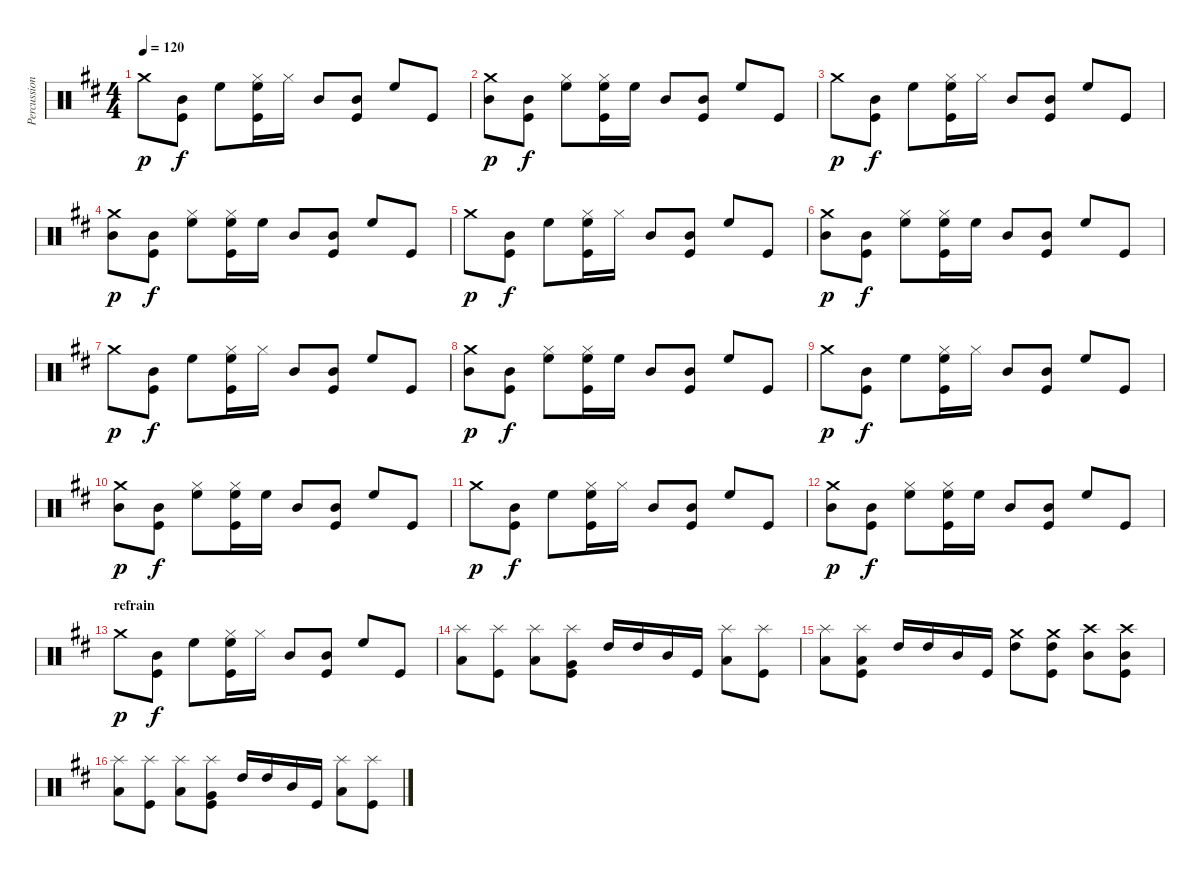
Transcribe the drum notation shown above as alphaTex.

\track ("Percussions" "Percussion") {instrument percussion}
\staff {score}
\articulation defaults
\ts (4 4)
\tempo 120
\clef neutral
\ks d "Crash medium (hit)".8{dy p}
("Mid Tom (hit)" "Kick (hit)").8{dy f} "High Floor Tom (hit)".8 ("Hi-Hat (closed)" "High Floor Tom (hit)" "Kick (hit)").16 "Hi-Hat (closed)".16 "Mid Tom (hit)".8 ("Mid Tom (hit)" "Kick (hit)").8 "High Floor Tom (hit)".8 "Kick (hit)".8 |
("Crash medium (hit)" "Mid Tom (hit)").8{dy p} ("Mid Tom (hit)" "Kick (hit)").8{dy f} ("Hi-Hat (closed)" "High Floor Tom (hit)").8 ("Hi-Hat (closed)" "High Floor Tom (hit)" "Kick (hit)").16 "High Floor Tom (hit)".16 "Mid Tom (hit)".8 ("Mid Tom (hit)" "Kick (hit)").8 "High Floor Tom (hit)".8 "Kick (hit)".8 |
"Crash medium (hit)".8{dy p} ("Mid Tom (hit)" "Kick (hit)").8{dy f} "High Floor Tom (hit)".8 ("Hi-Hat (closed)" "High Floor Tom (hit)" "Kick (hit)").16 "Hi-Hat (closed)".16 "Mid Tom (hit)".8 ("Mid Tom (hit)" "Kick (hit)").8 "High Floor Tom (hit)".8 "Kick (hit)".8 |
("Crash medium (hit)" "Mid Tom (hit)").8{dy p} ("Mid Tom (hit)" "Kick (hit)").8{dy f} ("Hi-Hat (closed)" "High Floor Tom (hit)").8 ("Hi-Hat (closed)" "High Floor Tom (hit)" "Kick (hit)").16 "High Floor Tom (hit)".16 "Mid Tom (hit)".8 ("Mid Tom (hit)" "Kick (hit)").8 "High Floor Tom (hit)".8 "Kick (hit)".8 |
"Crash medium (hit)".8{dy p} ("Mid Tom (hit)" "Kick (hit)").8{dy f} "High Floor Tom (hit)".8 ("Hi-Hat (closed)" "High Floor Tom (hit)" "Kick (hit)").16 "Hi-Hat (closed)".16 "Mid Tom (hit)".8 ("Mid Tom (hit)" "Kick (hit)").8 "High Floor Tom (hit)".8 "Kick (hit)".8 |
("Crash medium (hit)" "Mid Tom (hit)").8{dy p} ("Mid Tom (hit)" "Kick (hit)").8{dy f} ("Hi-Hat (closed)" "High Floor Tom (hit)").8 ("Hi-Hat (closed)" "High Floor Tom (hit)" "Kick (hit)").16 "High Floor Tom (hit)".16 "Mid Tom (hit)".8 ("Mid Tom (hit)" "Kick (hit)").8 "High Floor Tom (hit)".8 "Kick (hit)".8 |
"Crash medium (hit)".8{dy p} ("Mid Tom (hit)" "Kick (hit)").8{dy f} "High Floor Tom (hit)".8 ("Hi-Hat (closed)" "High Floor Tom (hit)" "Kick (hit)").16 "Hi-Hat (closed)".16 "Mid Tom (hit)".8 ("Mid Tom (hit)" "Kick (hit)").8 "High Floor Tom (hit)".8 "Kick (hit)".8 |
("Crash medium (hit)" "Mid Tom (hit)").8{dy p} ("Mid Tom (hit)" "Kick (hit)").8{dy f} ("Hi-Hat (closed)" "High Floor Tom (hit)").8 ("Hi-Hat (closed)" "High Floor Tom (hit)" "Kick (hit)").16 "High Floor Tom (hit)".16 "Mid Tom (hit)".8 ("Mid Tom (hit)" "Kick (hit)").8 "High Floor Tom (hit)".8 "Kick (hit)".8 |
"Crash medium (hit)".8{dy p} ("Mid Tom (hit)" "Kick (hit)").8{dy f} "High Floor Tom (hit)".8 ("Hi-Hat (closed)" "High Floor Tom (hit)" "Kick (hit)").16 "Hi-Hat (closed)".16 "Mid Tom (hit)".8 ("Mid Tom (hit)" "Kick (hit)").8 "High Floor Tom (hit)".8 "Kick (hit)".8 |
("Crash medium (hit)" "Mid Tom (hit)").8{dy p} ("Mid Tom (hit)" "Kick (hit)").8{dy f} ("Hi-Hat (closed)" "High Floor Tom (hit)").8 ("Hi-Hat (closed)" "High Floor Tom (hit)" "Kick (hit)").16 "High Floor Tom (hit)".16 "Mid Tom (hit)".8 ("Mid Tom (hit)" "Kick (hit)").8 "High Floor Tom (hit)".8 "Kick (hit)".8 |
"Crash medium (hit)".8{dy p} ("Mid Tom (hit)" "Kick (hit)").8{dy f} "High Floor Tom (hit)".8 ("Hi-Hat (closed)" "High Floor Tom (hit)" "Kick (hit)").16 "Hi-Hat (closed)".16 "Mid Tom (hit)".8 ("Mid Tom (hit)" "Kick (hit)").8 "High Floor Tom (hit)".8 "Kick (hit)".8 |
("Crash medium (hit)" "Mid Tom (hit)").8{dy p} ("Mid Tom (hit)" "Kick (hit)").8{dy f} ("Hi-Hat (closed)" "High Floor Tom (hit)").8 ("Hi-Hat (closed)" "High Floor Tom (hit)" "Kick (hit)").16 "High Floor Tom (hit)".16 "Mid Tom (hit)".8 ("Mid Tom (hit)" "Kick (hit)").8 "High Floor Tom (hit)".8 "Kick (hit)".8 |
\section ("" "refrain")
"Crash medium (hit)".8{dy p} ("Mid Tom (hit)" "Kick (hit)").8{dy f} "High Floor Tom (hit)".8 ("Hi-Hat (closed)" "High Floor Tom (hit)" "Kick (hit)").16 "Hi-Hat (closed)".16 "Mid Tom (hit)".8 ("Mid Tom (hit)" "Kick (hit)").8 "High Floor Tom (hit)".8 "Kick (hit)".8 |
("Splash (hit)" "Low Floor Tom (hit)").8 ("Splash (hit)" "Kick (hit)").8 ("Splash (hit)" "Low Floor Tom (hit)").8 ("Splash (hit)" "Very Low Tom (hit)" "Kick (hit)").8 "High Tom (hit)".16 "High Tom (hit)".16 "Mid Tom (hit)".16 "Kick (hit)".16 ("Splash (hit)" "Low Floor Tom (hit)").8 ("Splash (hit)" "Kick (hit)").8 |
("Splash (hit)" "Low Floor Tom (hit)").8 ("Splash (hit)" "Low Tom (hit)" "Kick (hit)").8 "High Tom (hit)".16 "High Tom (hit)".16 "Mid Tom (hit)".16 "Kick (hit)".16 ("Crash medium (hit)" "High Tom (hit)").8 ("Crash medium (hit)" "High Tom (hit)" "Kick (hit)").8 ("Crash high (hit)" "Mid Tom (hit)").8 ("Crash high (hit)" "Mid Tom (hit)" "Kick (hit)").8 |
("Splash (hit)" "Low Floor Tom (hit)").8 ("Splash (hit)" "Kick (hit)").8 ("Splash (hit)" "Low Floor Tom (hit)").8 ("Splash (hit)" "Very Low Tom (hit)" "Kick (hit)").8 "High Tom (hit)".16 "High Tom (hit)".16 "Mid Tom (hit)".16 "Kick (hit)".16 ("Splash (hit)" "Low Floor Tom (hit)").8 ("Splash (hit)" "Kick (hit)").8
